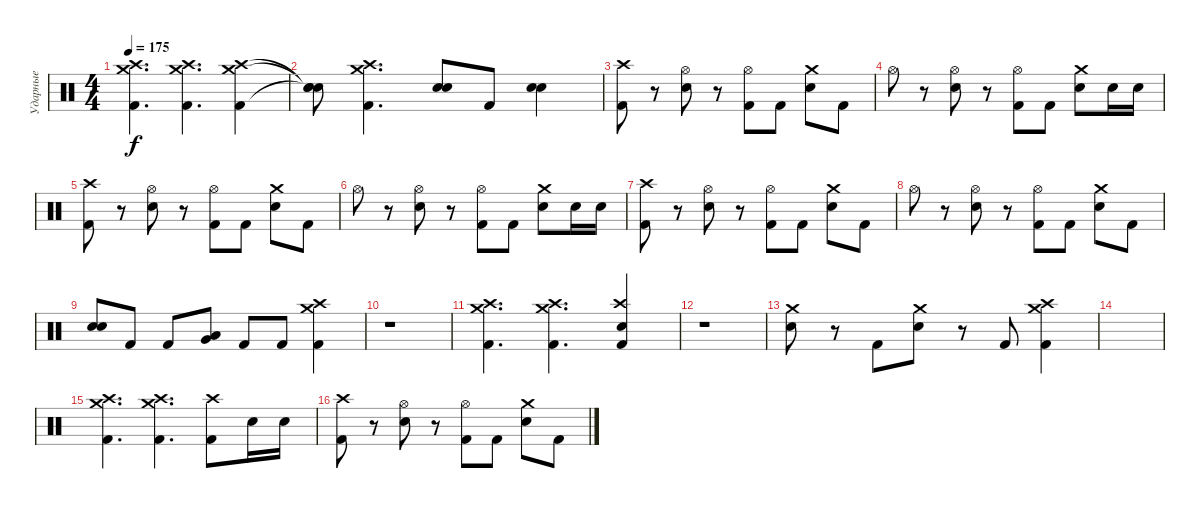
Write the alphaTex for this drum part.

\track ("Ударные" "Ударные") {instrument percussion}
\staff
\articulation defaults
\ts (4 4)
\tempo 175
\clef neutral
\ks c
("Kick (hit) 2" "Crash high (hit)" "Crash medium (hit)").4{d dy f} ("Kick (hit) 2" "Crash high (hit)" "Crash medium (hit)").4{d} ("Kick (hit) 2" "Crash high (hit)" "Crash medium (hit)").4 |
("Snare (hit)"{t} "Snare (hit)"{t} "Snare (hit)"{t}).8 ("Kick (hit) 2" "Crash high (hit)" "Crash medium (hit)").4{d} ("Electric Snare (hit)" "Electric Snare (hit)").8{bd 60} "Kick (hit) 2".8 ("Electric Snare (hit)" "Electric Snare (hit)").4{bd 60} |
("Kick (hit) 2" "Crash high (hit)").8 r.8 ("Electric Snare (hit)" "Hi-Hat (open)").8 r.8 ("Kick (hit) 2" "Hi-Hat (open)").8 "Kick (hit) 2".8 ("Electric Snare (hit)" "Crash medium (hit)").8 "Kick (hit) 2".8 |
"Hi-Hat (open)".8 r.8 ("Electric Snare (hit)" "Hi-Hat (open)").8 r.8 ("Kick (hit) 2" "Hi-Hat (open)").8 "Kick (hit) 2".8 ("Electric Snare (hit)" "Crash medium (hit)").8 "Electric Snare (hit)".16 "Electric Snare (hit)".16 |
("Kick (hit) 2" "Crash high (hit)").8 r.8 ("Electric Snare (hit)" "Hi-Hat (open)").8 r.8 ("Kick (hit) 2" "Hi-Hat (open)").8 "Kick (hit) 2".8 ("Electric Snare (hit)" "Crash medium (hit)").8 "Kick (hit) 2".8 |
"Hi-Hat (open)".8 r.8 ("Electric Snare (hit)" "Hi-Hat (open)").8 r.8 ("Kick (hit) 2" "Hi-Hat (open)").8 "Kick (hit) 2".8 ("Electric Snare (hit)" "Crash medium (hit)").8 "Electric Snare (hit)".16 "Electric Snare (hit)".16 |
("Kick (hit) 2" "Crash high (hit)").8 r.8 ("Electric Snare (hit)" "Hi-Hat (open)").8 r.8 ("Kick (hit) 2" "Hi-Hat (open)").8 "Kick (hit) 2".8 ("Electric Snare (hit)" "Crash medium (hit)").8 "Kick (hit) 2".8 |
"Hi-Hat (open)".8 r.8 ("Electric Snare (hit)" "Hi-Hat (open)").8 r.8 ("Kick (hit) 2" "Hi-Hat (open)").8 "Kick (hit) 2".8 ("Electric Snare (hit)" "Crash medium (hit)").8 "Kick (hit) 2".8 |
("Electric Snare (hit)" "Electric Snare (hit)").8{bd 60} "Kick (hit) 2".8 "Kick (hit) 2".8 ("Very Low Tom (hit)" "Low Tom (hit)").8{bd 60} "Kick (hit) 2".8 "Kick (hit) 2".8 ("Kick (hit) 2" "Crash medium (hit)" "Crash high (hit)").4 |
r.1 |
("Kick (hit) 2" "Crash medium (hit)" "Crash high (hit)").4{d} ("Kick (hit) 2" "Crash medium (hit)" "Crash high (hit)").4{d} ("Kick (hit) 2" "Electric Snare (hit)" "Crash high (hit)").4 |
r.1 |
("Crash medium (hit)" "Electric Snare (hit)").8 r.8 "Kick (hit) 2".8 ("Crash medium (hit)" "Electric Snare (hit)").8 r.8 "Kick (hit) 2".8 ("Kick (hit) 2" "Crash medium (hit)" "Crash high (hit)").4 |
|
("Kick (hit) 2" "Crash medium (hit)" "Crash high (hit)").4{d} ("Kick (hit) 2" "Crash medium (hit)" "Crash high (hit)").4{d} ("Kick (hit) 2" "Crash high (hit)").8 "Electric Snare (hit)".16 "Electric Snare (hit)".16 |
("Kick (hit) 2" "Crash high (hit)").8 r.8 ("Electric Snare (hit)" "Hi-Hat (open)").8 r.8 ("Kick (hit) 2" "Hi-Hat (open)").8 "Kick (hit) 2".8 ("Electric Snare (hit)" "Crash medium (hit)").8 "Kick (hit) 2".8
